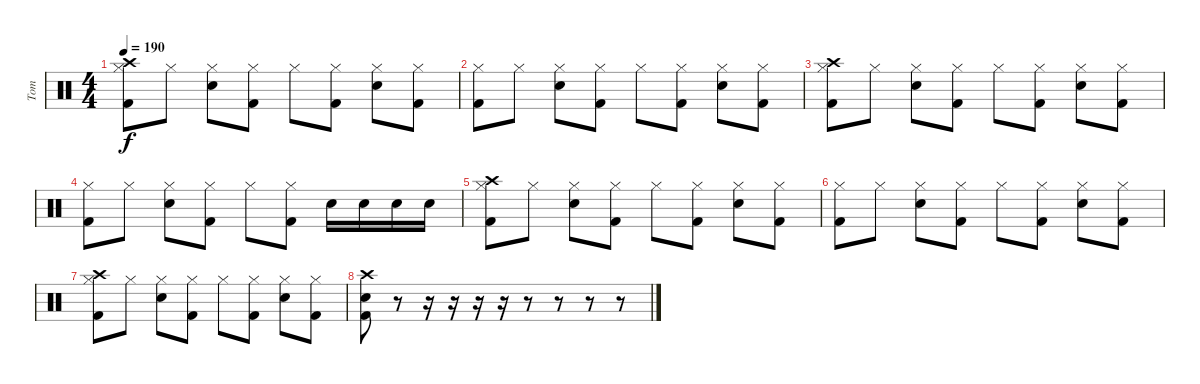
\track ("Tom" "Tom") {instrument percussion}
\staff {score}
\articulation defaults
\ts (4 4)
\tempo 190
\clef neutral
\ks c
("Crash high (hit)" "Hi-Hat (closed)" "Kick (hit) 2").8{dy f} "Hi-Hat (closed)".8 ("Hi-Hat (closed)" "Electric Snare (hit)").8 ("Hi-Hat (closed)" "Kick (hit) 2").8 "Hi-Hat (closed)".8 ("Hi-Hat (closed)" "Kick (hit) 2").8 ("Hi-Hat (closed)" "Electric Snare (hit)").8 ("Hi-Hat (closed)" "Kick (hit) 2").8 |
("Hi-Hat (closed)" "Kick (hit) 2").8 "Hi-Hat (closed)".8 ("Hi-Hat (closed)" "Electric Snare (hit)").8 ("Hi-Hat (closed)" "Kick (hit) 2").8 "Hi-Hat (closed)".8 ("Hi-Hat (closed)" "Kick (hit) 2").8 ("Hi-Hat (closed)" "Electric Snare (hit)").8 ("Hi-Hat (closed)" "Kick (hit) 2").8 |
("Crash high (hit)" "Hi-Hat (closed)" "Kick (hit) 2").8 "Hi-Hat (closed)".8 ("Hi-Hat (closed)" "Electric Snare (hit)").8 ("Hi-Hat (closed)" "Kick (hit) 2").8 "Hi-Hat (closed)".8 ("Hi-Hat (closed)" "Kick (hit) 2").8 ("Hi-Hat (closed)" "Electric Snare (hit)").8 ("Hi-Hat (closed)" "Kick (hit) 2").8 |
("Hi-Hat (closed)" "Kick (hit) 2").8 "Hi-Hat (closed)".8 ("Hi-Hat (closed)" "Electric Snare (hit)").8 ("Hi-Hat (closed)" "Kick (hit) 2").8 "Hi-Hat (closed)".8 ("Hi-Hat (closed)" "Kick (hit) 2").8 "Electric Snare (hit)".16 "Electric Snare (hit)".16 "Electric Snare (hit)".16 "Electric Snare (hit)".16 |
("Crash high (hit)" "Hi-Hat (closed)" "Kick (hit) 2").8 "Hi-Hat (closed)".8 ("Hi-Hat (closed)" "Electric Snare (hit)").8 ("Hi-Hat (closed)" "Kick (hit) 2").8 "Hi-Hat (closed)".8 ("Hi-Hat (closed)" "Kick (hit) 2").8 ("Hi-Hat (closed)" "Electric Snare (hit)").8 ("Hi-Hat (closed)" "Kick (hit) 2").8 |
("Hi-Hat (closed)" "Kick (hit) 2").8 "Hi-Hat (closed)".8 ("Hi-Hat (closed)" "Electric Snare (hit)").8 ("Hi-Hat (closed)" "Kick (hit) 2").8 "Hi-Hat (closed)".8 ("Hi-Hat (closed)" "Kick (hit) 2").8 ("Hi-Hat (closed)" "Electric Snare (hit)").8 ("Hi-Hat (closed)" "Kick (hit) 2").8 |
("Crash high (hit)" "Hi-Hat (closed)" "Kick (hit) 2").8 "Hi-Hat (closed)".8 ("Hi-Hat (closed)" "Electric Snare (hit)").8 ("Hi-Hat (closed)" "Kick (hit) 2").8 "Hi-Hat (closed)".8 ("Hi-Hat (closed)" "Kick (hit) 2").8 ("Hi-Hat (closed)" "Electric Snare (hit)").8 ("Hi-Hat (closed)" "Kick (hit) 2").8 |
("Crash high (hit)" "Electric Snare (hit)" "Kick (hit) 2").8 r.8 r.16 r.16 r.16 r.16 r.8 r.8 r.8 r.8
